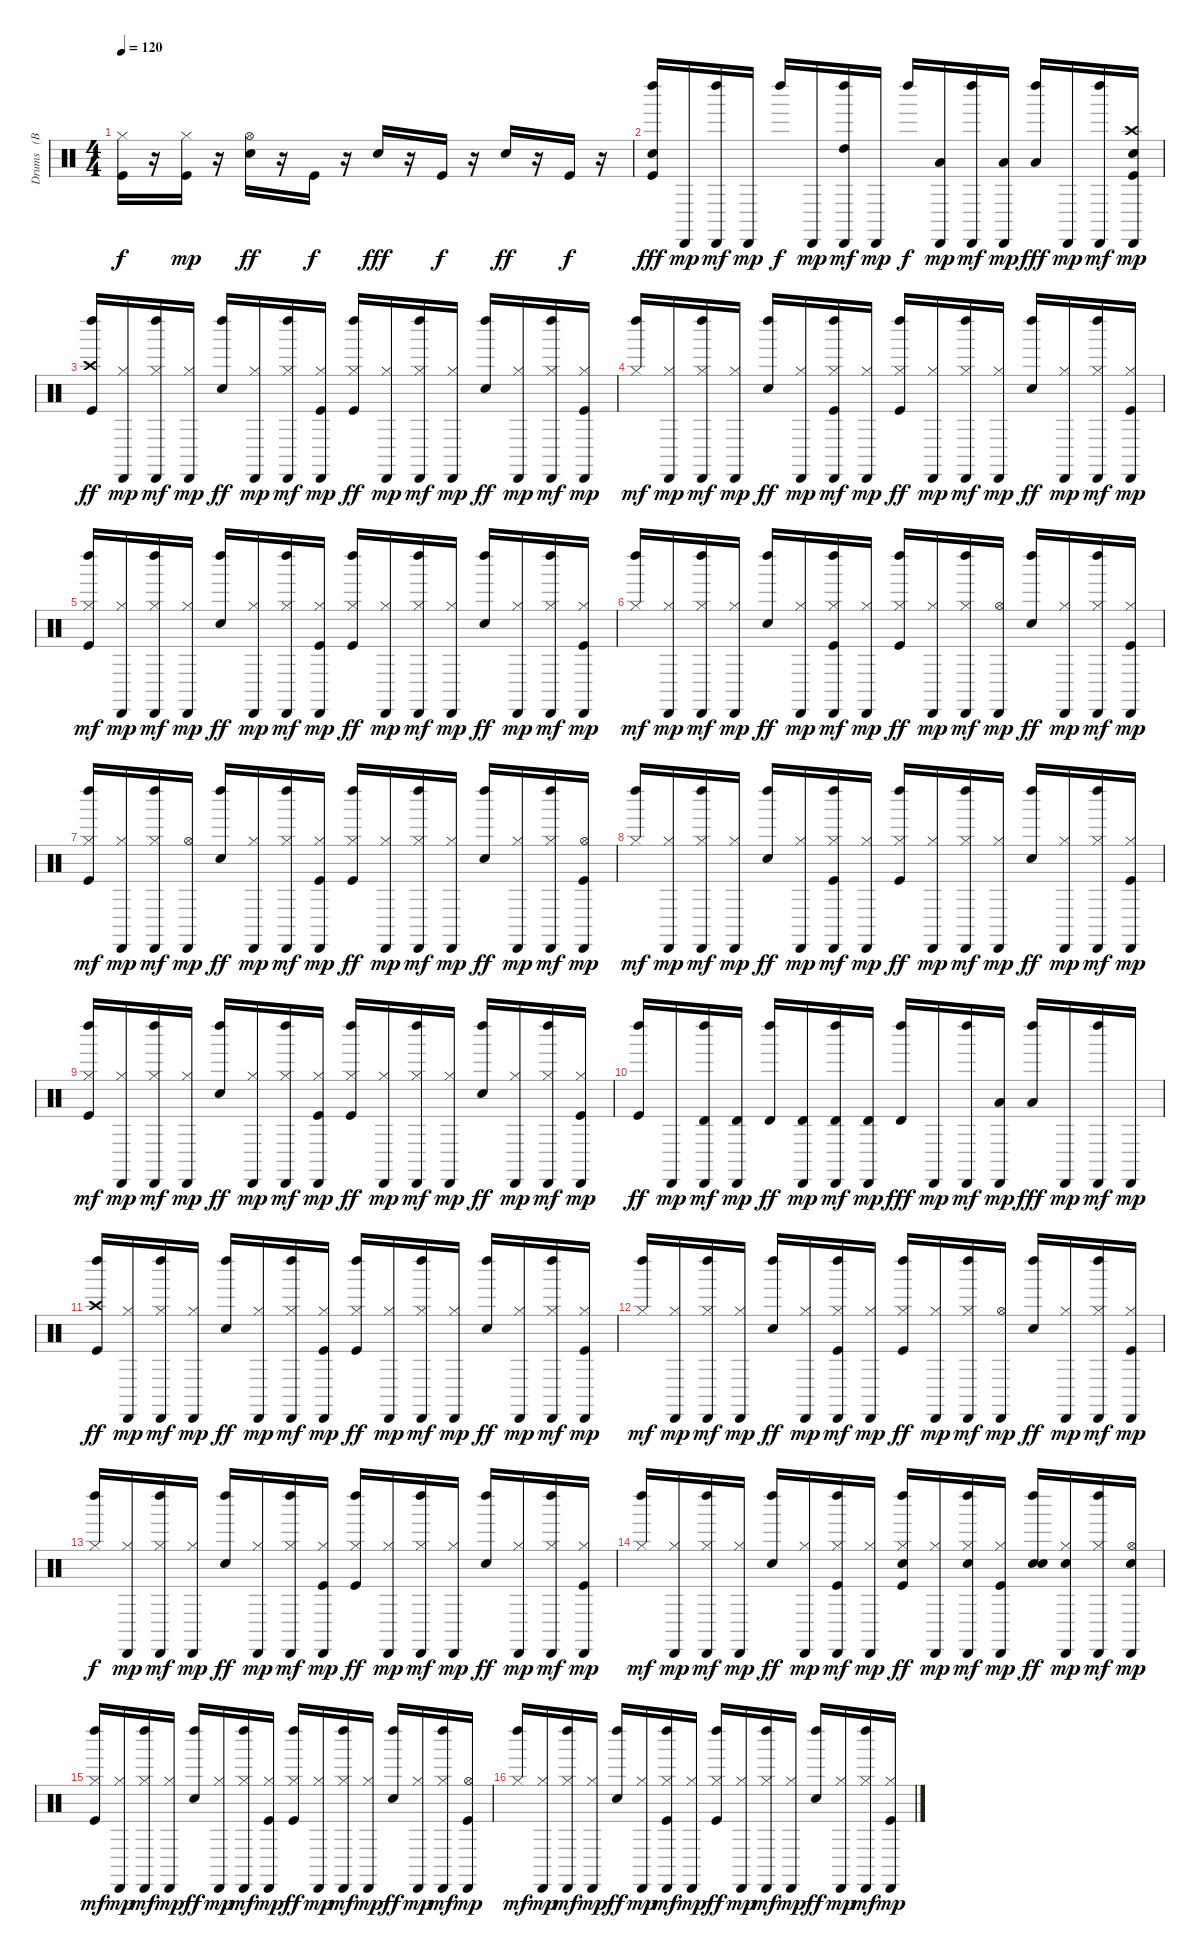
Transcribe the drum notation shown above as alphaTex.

\track ("Drums   (BB)" "Drums   (B") {instrument percussion}
\staff {score}
\articulation defaults
\ts (4 4)
\tempo 120
\clef neutral
\ks c
("Kick (hit)" "Hi-Hat (closed)").16{dy f} r.16 ("Kick (hit)" "Hi-Hat (closed)").16{dy mp} r.16 ("Snare (hit) 2" "Hi-Hat (open)").16{dy ff} r.16 "Kick (hit)".16{dy f} r.16 "Snare (hit) 2".16{dy fff} r.16 "Kick (hit)".16{dy f} r.16 "Snare (hit) 2".16{dy ff} r.16 "Kick (hit)".16{dy f} r.16 |
("Kick (hit)" "Snare (hit) 2" "Left Maraca (hit)").16{dy fff} "Cabasa (hit)".16{dy mp} ("Left Maraca (hit)" "Cabasa (hit)").16{dy mf} "Cabasa (hit)".16{dy mp} "Left Maraca (hit)".16{dy f} "Cabasa (hit)".16{dy mp} ("High Tom (hit)" "Left Maraca (hit)" "Cabasa (hit)").16{dy mf} "Cabasa (hit)".16{dy mp} "Left Maraca (hit)".16{dy f} ("Low Tom (hit)" "Cabasa (hit)").16{dy mp} ("Left Maraca (hit)" "Cabasa (hit)").16{dy mf} ("Low Floor Tom (hit)" "Cabasa (hit)").16{dy mp} ("Low Floor Tom (hit)" "Left Maraca (hit)").16{dy fff} "Cabasa (hit)".16{dy mp} ("Left Maraca (hit)" "Cabasa (hit)").16{dy mf} ("Kick (hit)" "Snare (hit) 2" "Crash high (hit)" "Cabasa (hit)").16{dy mp} |
("Kick (hit)" "Crash high (hit)" "Left Maraca (hit)").16{dy ff} ("Hi-Hat (closed)" "Cabasa (hit)").16{dy mp} ("Hi-Hat (closed)" "Left Maraca (hit)" "Cabasa (hit)").16{dy mf} ("Hi-Hat (closed)" "Cabasa (hit)").16{dy mp} ("Snare (hit) 2" "Left Maraca (hit)").16{dy ff} ("Hi-Hat (closed)" "Cabasa (hit)").16{dy mp} ("Hi-Hat (closed)" "Left Maraca (hit)" "Cabasa (hit)").16{dy mf} ("Kick (hit)" "Hi-Hat (closed)" "Cabasa (hit)").16{dy mp} ("Kick (hit)" "Hi-Hat (closed)" "Left Maraca (hit)").16{dy ff} ("Hi-Hat (closed)" "Cabasa (hit)").16{dy mp} ("Hi-Hat (closed)" "Left Maraca (hit)" "Cabasa (hit)").16{dy mf} ("Hi-Hat (closed)" "Cabasa (hit)").16{dy mp} ("Snare (hit) 2" "Left Maraca (hit)").16{dy ff} ("Hi-Hat (closed)" "Cabasa (hit)").16{dy mp} ("Hi-Hat (closed)" "Left Maraca (hit)" "Cabasa (hit)").16{dy mf} ("Kick (hit)" "Hi-Hat (closed)" "Cabasa (hit)").16{dy mp} |
("Hi-Hat (closed)" "Left Maraca (hit)").16{dy mf} ("Hi-Hat (closed)" "Cabasa (hit)").16{dy mp} ("Hi-Hat (closed)" "Left Maraca (hit)" "Cabasa (hit)").16{dy mf} ("Hi-Hat (closed)" "Cabasa (hit)").16{dy mp} ("Snare (hit) 2" "Left Maraca (hit)").16{dy ff} ("Hi-Hat (closed)" "Cabasa (hit)").16{dy mp} ("Kick (hit)" "Hi-Hat (closed)" "Left Maraca (hit)" "Cabasa (hit)").16{dy mf} ("Hi-Hat (closed)" "Cabasa (hit)").16{dy mp} ("Kick (hit)" "Hi-Hat (closed)" "Left Maraca (hit)").16{dy ff} ("Hi-Hat (closed)" "Cabasa (hit)").16{dy mp} ("Hi-Hat (closed)" "Left Maraca (hit)" "Cabasa (hit)").16{dy mf} ("Hi-Hat (closed)" "Cabasa (hit)").16{dy mp} ("Snare (hit) 2" "Left Maraca (hit)").16{dy ff} ("Hi-Hat (closed)" "Cabasa (hit)").16{dy mp} ("Hi-Hat (closed)" "Left Maraca (hit)" "Cabasa (hit)").16{dy mf} ("Kick (hit)" "Hi-Hat (closed)" "Cabasa (hit)").16{dy mp} |
("Kick (hit)" "Hi-Hat (closed)" "Left Maraca (hit)").16{dy mf} ("Hi-Hat (closed)" "Cabasa (hit)").16{dy mp} ("Hi-Hat (closed)" "Left Maraca (hit)" "Cabasa (hit)").16{dy mf} ("Hi-Hat (closed)" "Cabasa (hit)").16{dy mp} ("Snare (hit) 2" "Left Maraca (hit)").16{dy ff} ("Hi-Hat (closed)" "Cabasa (hit)").16{dy mp} ("Hi-Hat (closed)" "Left Maraca (hit)" "Cabasa (hit)").16{dy mf} ("Kick (hit)" "Hi-Hat (closed)" "Cabasa (hit)").16{dy mp} ("Kick (hit)" "Hi-Hat (closed)" "Left Maraca (hit)").16{dy ff} ("Hi-Hat (closed)" "Cabasa (hit)").16{dy mp} ("Hi-Hat (closed)" "Left Maraca (hit)" "Cabasa (hit)").16{dy mf} ("Hi-Hat (closed)" "Cabasa (hit)").16{dy mp} ("Snare (hit) 2" "Left Maraca (hit)").16{dy ff} ("Hi-Hat (closed)" "Cabasa (hit)").16{dy mp} ("Hi-Hat (closed)" "Left Maraca (hit)" "Cabasa (hit)").16{dy mf} ("Kick (hit)" "Hi-Hat (closed)" "Cabasa (hit)").16{dy mp} |
("Hi-Hat (closed)" "Left Maraca (hit)").16{dy mf} ("Hi-Hat (closed)" "Cabasa (hit)").16{dy mp} ("Hi-Hat (closed)" "Left Maraca (hit)" "Cabasa (hit)").16{dy mf} ("Hi-Hat (closed)" "Cabasa (hit)").16{dy mp} ("Snare (hit) 2" "Left Maraca (hit)").16{dy ff} ("Hi-Hat (closed)" "Cabasa (hit)").16{dy mp} ("Kick (hit)" "Hi-Hat (closed)" "Left Maraca (hit)" "Cabasa (hit)").16{dy mf} ("Hi-Hat (closed)" "Cabasa (hit)").16{dy mp} ("Kick (hit)" "Hi-Hat (closed)" "Left Maraca (hit)").16{dy ff} ("Hi-Hat (closed)" "Cabasa (hit)").16{dy mp} ("Hi-Hat (closed)" "Left Maraca (hit)" "Cabasa (hit)").16{dy mf} ("Hi-Hat (open)" "Cabasa (hit)").16{dy mp} ("Snare (hit) 2" "Left Maraca (hit)").16{dy ff} ("Hi-Hat (closed)" "Cabasa (hit)").16{dy mp} ("Hi-Hat (closed)" "Left Maraca (hit)" "Cabasa (hit)").16{dy mf} ("Kick (hit)" "Hi-Hat (closed)" "Cabasa (hit)").16{dy mp} |
("Kick (hit)" "Hi-Hat (closed)" "Left Maraca (hit)").16{dy mf} ("Hi-Hat (closed)" "Cabasa (hit)").16{dy mp} ("Hi-Hat (closed)" "Left Maraca (hit)" "Cabasa (hit)").16{dy mf} ("Hi-Hat (open)" "Cabasa (hit)").16{dy mp} ("Snare (hit) 2" "Left Maraca (hit)").16{dy ff} ("Hi-Hat (closed)" "Cabasa (hit)").16{dy mp} ("Hi-Hat (closed)" "Left Maraca (hit)" "Cabasa (hit)").16{dy mf} ("Kick (hit)" "Hi-Hat (closed)" "Cabasa (hit)").16{dy mp} ("Kick (hit)" "Hi-Hat (closed)" "Left Maraca (hit)").16{dy ff} ("Hi-Hat (closed)" "Cabasa (hit)").16{dy mp} ("Hi-Hat (closed)" "Left Maraca (hit)" "Cabasa (hit)").16{dy mf} ("Hi-Hat (closed)" "Cabasa (hit)").16{dy mp} ("Snare (hit) 2" "Left Maraca (hit)").16{dy ff} ("Hi-Hat (closed)" "Cabasa (hit)").16{dy mp} ("Hi-Hat (closed)" "Left Maraca (hit)" "Cabasa (hit)").16{dy mf} ("Kick (hit)" "Hi-Hat (open)" "Cabasa (hit)").16{dy mp} |
("Hi-Hat (closed)" "Left Maraca (hit)").16{dy mf} ("Hi-Hat (closed)" "Cabasa (hit)").16{dy mp} ("Hi-Hat (closed)" "Left Maraca (hit)" "Cabasa (hit)").16{dy mf} ("Hi-Hat (closed)" "Cabasa (hit)").16{dy mp} ("Snare (hit) 2" "Left Maraca (hit)").16{dy ff} ("Hi-Hat (closed)" "Cabasa (hit)").16{dy mp} ("Kick (hit)" "Hi-Hat (closed)" "Left Maraca (hit)" "Cabasa (hit)").16{dy mf} ("Hi-Hat (closed)" "Cabasa (hit)").16{dy mp} ("Kick (hit)" "Hi-Hat (closed)" "Left Maraca (hit)").16{dy ff} ("Hi-Hat (closed)" "Cabasa (hit)").16{dy mp} ("Hi-Hat (closed)" "Left Maraca (hit)" "Cabasa (hit)").16{dy mf} ("Hi-Hat (closed)" "Cabasa (hit)").16{dy mp} ("Snare (hit) 2" "Left Maraca (hit)").16{dy ff} ("Hi-Hat (closed)" "Cabasa (hit)").16{dy mp} ("Hi-Hat (closed)" "Left Maraca (hit)" "Cabasa (hit)").16{dy mf} ("Kick (hit)" "Hi-Hat (closed)" "Cabasa (hit)").16{dy mp} |
("Kick (hit)" "Hi-Hat (closed)" "Left Maraca (hit)").16{dy mf} ("Hi-Hat (closed)" "Cabasa (hit)").16{dy mp} ("Hi-Hat (closed)" "Left Maraca (hit)" "Cabasa (hit)").16{dy mf} ("Hi-Hat (closed)" "Cabasa (hit)").16{dy mp} ("Snare (hit) 2" "Left Maraca (hit)").16{dy ff} ("Hi-Hat (closed)" "Cabasa (hit)").16{dy mp} ("Hi-Hat (closed)" "Left Maraca (hit)" "Cabasa (hit)").16{dy mf} ("Kick (hit)" "Hi-Hat (closed)" "Cabasa (hit)").16{dy mp} ("Kick (hit)" "Hi-Hat (closed)" "Left Maraca (hit)").16{dy ff} ("Hi-Hat (closed)" "Cabasa (hit)").16{dy mp} ("Hi-Hat (closed)" "Left Maraca (hit)" "Cabasa (hit)").16{dy mf} ("Hi-Hat (closed)" "Cabasa (hit)").16{dy mp} ("Snare (hit) 2" "Left Maraca (hit)").16{dy ff} ("Hi-Hat (closed)" "Cabasa (hit)").16{dy mp} ("Hi-Hat (closed)" "Left Maraca (hit)" "Cabasa (hit)").16{dy mf} ("Kick (hit)" "Hi-Hat (closed)" "Cabasa (hit)").16{dy mp} |
("Kick (hit)" "Left Maraca (hit)").16{dy ff} "Cabasa (hit)".16{dy mp} ("Timbale high (hit)" "Left Maraca (hit)" "Cabasa (hit)").16{dy mf} ("Timbale high (hit)" "Cabasa (hit)").16{dy mp} ("Timbale high (hit)" "Left Maraca (hit)").16{dy ff} ("Timbale high (hit)" "Cabasa (hit)").16{dy mp} ("Timbale high (hit)" "Left Maraca (hit)" "Cabasa (hit)").16{dy mf} ("Timbale high (hit)" "Cabasa (hit)").16{dy mp} ("Timbale high (hit)" "Left Maraca (hit)").16{dy fff} "Cabasa (hit)".16{dy mp} ("Left Maraca (hit)" "Cabasa (hit)").16{dy mf} ("Low Tom (hit)" "Cabasa (hit)").16{dy mp} ("Low Floor Tom (hit)" "Left Maraca (hit)").16{dy fff} "Cabasa (hit)".16{dy mp} ("Left Maraca (hit)" "Cabasa (hit)").16{dy mf} "Cabasa (hit)".16{dy mp} |
("Kick (hit)" "Crash high (hit)" "Left Maraca (hit)").16{dy ff} ("Hi-Hat (closed)" "Cabasa (hit)").16{dy mp} ("Hi-Hat (closed)" "Left Maraca (hit)" "Cabasa (hit)").16{dy mf} ("Hi-Hat (closed)" "Cabasa (hit)").16{dy mp} ("Snare (hit) 2" "Left Maraca (hit)").16{dy ff} ("Hi-Hat (closed)" "Cabasa (hit)").16{dy mp} ("Hi-Hat (closed)" "Left Maraca (hit)" "Cabasa (hit)").16{dy mf} ("Kick (hit)" "Hi-Hat (closed)" "Cabasa (hit)").16{dy mp} ("Kick (hit)" "Hi-Hat (closed)" "Left Maraca (hit)").16{dy ff} ("Hi-Hat (closed)" "Cabasa (hit)").16{dy mp} ("Hi-Hat (closed)" "Left Maraca (hit)" "Cabasa (hit)").16{dy mf} ("Hi-Hat (closed)" "Cabasa (hit)").16{dy mp} ("Snare (hit) 2" "Left Maraca (hit)").16{dy ff} ("Hi-Hat (closed)" "Cabasa (hit)").16{dy mp} ("Hi-Hat (closed)" "Left Maraca (hit)" "Cabasa (hit)").16{dy mf} ("Kick (hit)" "Hi-Hat (closed)" "Cabasa (hit)").16{dy mp} |
("Hi-Hat (closed)" "Left Maraca (hit)").16{dy mf} ("Hi-Hat (closed)" "Cabasa (hit)").16{dy mp} ("Hi-Hat (closed)" "Left Maraca (hit)" "Cabasa (hit)").16{dy mf} ("Hi-Hat (closed)" "Cabasa (hit)").16{dy mp} ("Snare (hit) 2" "Left Maraca (hit)").16{dy ff} ("Hi-Hat (closed)" "Cabasa (hit)").16{dy mp} ("Kick (hit)" "Hi-Hat (closed)" "Left Maraca (hit)" "Cabasa (hit)").16{dy mf} ("Hi-Hat (closed)" "Cabasa (hit)").16{dy mp} ("Kick (hit)" "Hi-Hat (closed)" "Left Maraca (hit)").16{dy ff} ("Hi-Hat (closed)" "Cabasa (hit)").16{dy mp} ("Hi-Hat (closed)" "Left Maraca (hit)" "Cabasa (hit)").16{dy mf} ("Hi-Hat (open)" "Cabasa (hit)").16{dy mp} ("Snare (hit) 2" "Left Maraca (hit)").16{dy ff} ("Hi-Hat (closed)" "Cabasa (hit)").16{dy mp} ("Hi-Hat (closed)" "Left Maraca (hit)" "Cabasa (hit)").16{dy mf} ("Kick (hit)" "Hi-Hat (closed)" "Cabasa (hit)").16{dy mp} |
("Hi-Hat (closed)" "Left Maraca (hit)").16{dy f} ("Hi-Hat (closed)" "Cabasa (hit)").16{dy mp} ("Hi-Hat (closed)" "Left Maraca (hit)" "Cabasa (hit)").16{dy mf} ("Hi-Hat (closed)" "Cabasa (hit)").16{dy mp} ("Snare (hit) 2" "Left Maraca (hit)").16{dy ff} ("Hi-Hat (closed)" "Cabasa (hit)").16{dy mp} ("Hi-Hat (closed)" "Left Maraca (hit)" "Cabasa (hit)").16{dy mf} ("Kick (hit)" "Hi-Hat (closed)" "Cabasa (hit)").16{dy mp} ("Kick (hit)" "Hi-Hat (closed)" "Left Maraca (hit)").16{dy ff} ("Hi-Hat (closed)" "Cabasa (hit)").16{dy mp} ("Hi-Hat (closed)" "Left Maraca (hit)" "Cabasa (hit)").16{dy mf} ("Hi-Hat (closed)" "Cabasa (hit)").16{dy mp} ("Snare (hit) 2" "Left Maraca (hit)").16{dy ff} ("Hi-Hat (closed)" "Cabasa (hit)").16{dy mp} ("Hi-Hat (closed)" "Left Maraca (hit)" "Cabasa (hit)").16{dy mf} ("Kick (hit)" "Hi-Hat (closed)" "Cabasa (hit)").16{dy mp} |
("Hi-Hat (closed)" "Left Maraca (hit)").16{dy mf} ("Hi-Hat (closed)" "Cabasa (hit)").16{dy mp} ("Hi-Hat (closed)" "Left Maraca (hit)" "Cabasa (hit)").16{dy mf} ("Hi-Hat (closed)" "Cabasa (hit)").16{dy mp} ("Snare (hit) 2" "Left Maraca (hit)").16{dy ff} ("Hi-Hat (closed)" "Cabasa (hit)").16{dy mp} ("Kick (hit)" "Hi-Hat (closed)" "Left Maraca (hit)" "Cabasa (hit)").16{dy mf} ("Hi-Hat (closed)" "Cabasa (hit)").16{dy mp} ("Kick (hit)" "Hi-Hat (closed)" "Hand Clap (hit)" "Left Maraca (hit)").16{dy ff} ("Hi-Hat (closed)" "Cabasa (hit)").16{dy mp} ("Hi-Hat (closed)" "Hand Clap (hit)" "Left Maraca (hit)" "Cabasa (hit)").16{dy mf} ("Kick (hit)" "Hi-Hat (closed)" "Cabasa (hit)").16{dy mp} ("Snare (hit) 2" "Hand Clap (hit)" "Left Maraca (hit)").16{dy ff} ("Hi-Hat (closed)" "Hand Clap (hit)" "Cabasa (hit)").16{dy mp} ("Hi-Hat (closed)" "Left Maraca (hit)" "Cabasa (hit)").16{dy mf} ("Hi-Hat (open)" "Hand Clap (hit)" "Cabasa (hit)").16{dy mp} |
("Kick (hit)" "Hi-Hat (closed)" "Left Maraca (hit)").16{dy mf} ("Hi-Hat (closed)" "Cabasa (hit)").16{dy mp} ("Hi-Hat (closed)" "Left Maraca (hit)" "Cabasa (hit)").16{dy mf} ("Hi-Hat (closed)" "Cabasa (hit)").16{dy mp} ("Snare (hit) 2" "Left Maraca (hit)").16{dy ff} ("Hi-Hat (closed)" "Cabasa (hit)").16{dy mp} ("Hi-Hat (closed)" "Left Maraca (hit)" "Cabasa (hit)").16{dy mf} ("Kick (hit)" "Hi-Hat (closed)" "Cabasa (hit)").16{dy mp} ("Kick (hit)" "Hi-Hat (closed)" "Left Maraca (hit)").16{dy ff} ("Hi-Hat (closed)" "Cabasa (hit)").16{dy mp} ("Hi-Hat (closed)" "Left Maraca (hit)" "Cabasa (hit)").16{dy mf} ("Hi-Hat (closed)" "Cabasa (hit)").16{dy mp} ("Snare (hit) 2" "Left Maraca (hit)").16{dy ff} ("Hi-Hat (closed)" "Cabasa (hit)").16{dy mp} ("Hi-Hat (closed)" "Left Maraca (hit)" "Cabasa (hit)").16{dy mf} ("Kick (hit)" "Hi-Hat (open)" "Cabasa (hit)").16{dy mp} |
("Hi-Hat (closed)" "Left Maraca (hit)").16{dy mf} ("Hi-Hat (closed)" "Cabasa (hit)").16{dy mp} ("Hi-Hat (closed)" "Left Maraca (hit)" "Cabasa (hit)").16{dy mf} ("Hi-Hat (closed)" "Cabasa (hit)").16{dy mp} ("Snare (hit) 2" "Left Maraca (hit)").16{dy ff} ("Hi-Hat (closed)" "Cabasa (hit)").16{dy mp} ("Kick (hit)" "Hi-Hat (closed)" "Left Maraca (hit)" "Cabasa (hit)").16{dy mf} ("Hi-Hat (closed)" "Cabasa (hit)").16{dy mp} ("Kick (hit)" "Hi-Hat (closed)" "Left Maraca (hit)").16{dy ff} ("Hi-Hat (closed)" "Cabasa (hit)").16{dy mp} ("Hi-Hat (closed)" "Left Maraca (hit)" "Cabasa (hit)").16{dy mf} ("Hi-Hat (closed)" "Cabasa (hit)").16{dy mp} ("Snare (hit) 2" "Left Maraca (hit)").16{dy ff} ("Hi-Hat (closed)" "Cabasa (hit)").16{dy mp} ("Hi-Hat (closed)" "Left Maraca (hit)" "Cabasa (hit)").16{dy mf} ("Kick (hit)" "Hi-Hat (closed)" "Cabasa (hit)").16{dy mp}
